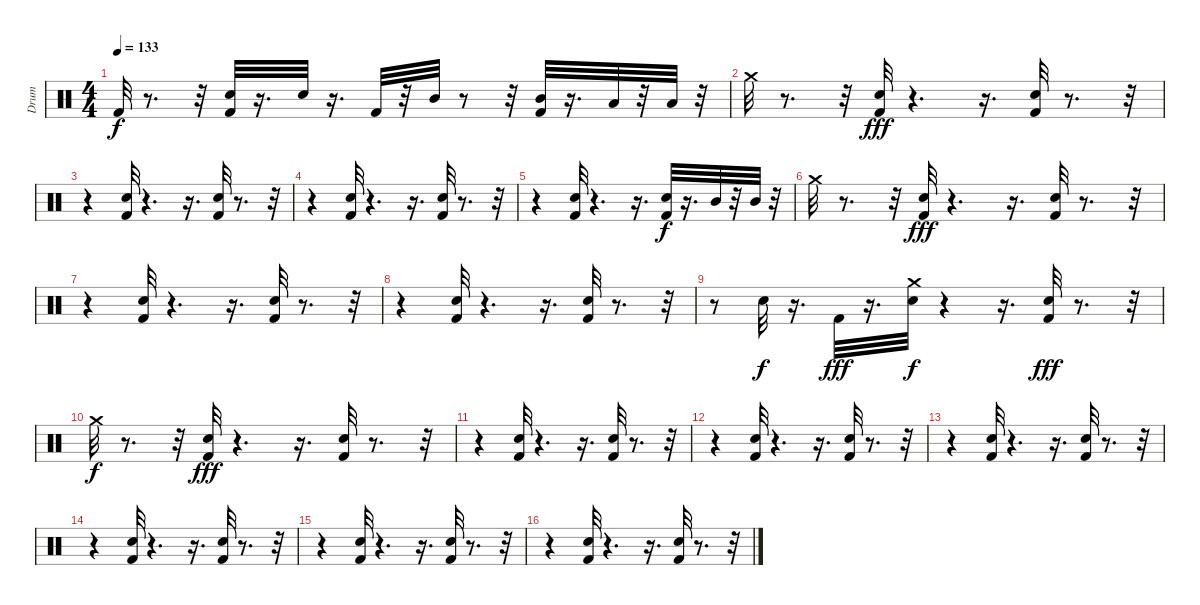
\track ("Drum" "Drum") {instrument percussion}
\staff {score}
\articulation defaults
\ts (4 4)
\tempo 133
\clef neutral
\ks c "Kick (hit) 2".32{dy f}
r.8{d} r.32 ("Kick (hit) 2" "Electric Snare (hit)").32 r.16{d} "Electric Snare (hit)".32 r.16{d} "Kick (hit) 2".32 r.32 "Mid Tom (hit)".32 r.8 r.32 ("Kick (hit) 2" "Mid Tom (hit)").32 r.16{d} "Low Tom (hit)".32 r.32 "Low Tom (hit)".32 r.32 |
"Crash medium (hit)".32 r.8{d} r.32 ("Electric Snare (hit)" "Kick (hit) 2").32{dy fff} r.4{d} r.16{d} ("Electric Snare (hit)" "Kick (hit) 2").32 r.8{d} r.32 |
r.4 ("Electric Snare (hit)" "Kick (hit) 2").32 r.4{d} r.16{d} ("Electric Snare (hit)" "Kick (hit) 2").32 r.8{d} r.32 |
r.4 ("Electric Snare (hit)" "Kick (hit) 2").32 r.4{d} r.16{d} ("Electric Snare (hit)" "Kick (hit) 2").32 r.8{d} r.32 |
r.4 ("Electric Snare (hit)" "Kick (hit) 2").32 r.4{d} r.16{d} ("Kick (hit) 2" "Electric Snare (hit)").32{dy f} r.16{d} "Mid Tom (hit)".32 r.32 "Mid Tom (hit)".32 r.32 |
"Crash medium (hit)".32 r.8{d} r.32 ("Electric Snare (hit)" "Kick (hit) 2").32{dy fff} r.4{d} r.16{d} ("Electric Snare (hit)" "Kick (hit) 2").32 r.8{d} r.32 |
r.4 ("Electric Snare (hit)" "Kick (hit) 2").32 r.4{d} r.16{d} ("Electric Snare (hit)" "Kick (hit) 2").32 r.8{d} r.32 |
r.4 ("Electric Snare (hit)" "Kick (hit) 2").32 r.4{d} r.16{d} ("Electric Snare (hit)" "Kick (hit) 2").32 r.8{d} r.32 |
r.8 "Electric Snare (hit)".32{dy f} r.16{d} "Kick (hit) 2".32{dy fff} r.16{d} ("Electric Snare (hit)" "Crash medium (hit)").32{dy f} r.4 r.16{d} ("Kick (hit) 2" "Electric Snare (hit)").32{dy fff} r.8{d} r.32 |
"Crash medium (hit)".32{dy f} r.8{d} r.32 ("Electric Snare (hit)" "Kick (hit) 2").32{dy fff} r.4{d} r.16{d} ("Electric Snare (hit)" "Kick (hit) 2").32 r.8{d} r.32 |
r.4 ("Electric Snare (hit)" "Kick (hit) 2").32 r.4{d} r.16{d} ("Electric Snare (hit)" "Kick (hit) 2").32 r.8{d} r.32 |
r.4 ("Electric Snare (hit)" "Kick (hit) 2").32 r.4{d} r.16{d} ("Electric Snare (hit)" "Kick (hit) 2").32 r.8{d} r.32 |
r.4 ("Electric Snare (hit)" "Kick (hit) 2").32 r.4{d} r.16{d} ("Electric Snare (hit)" "Kick (hit) 2").32 r.8{d} r.32 |
r.4 ("Electric Snare (hit)" "Kick (hit) 2").32 r.4{d} r.16{d} ("Electric Snare (hit)" "Kick (hit) 2").32 r.8{d} r.32 |
r.4 ("Electric Snare (hit)" "Kick (hit) 2").32 r.4{d} r.16{d} ("Electric Snare (hit)" "Kick (hit) 2").32 r.8{d} r.32 |
r.4 ("Electric Snare (hit)" "Kick (hit) 2").32 r.4{d} r.16{d} ("Electric Snare (hit)" "Kick (hit) 2").32 r.8{d} r.32
